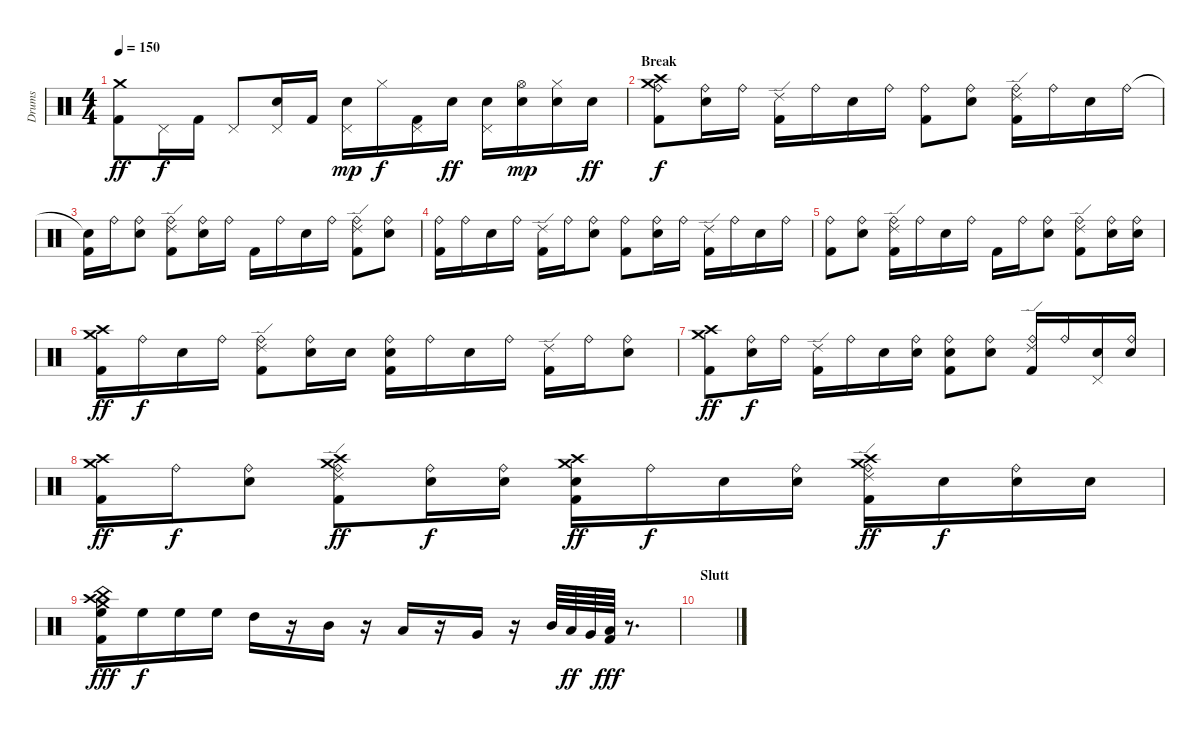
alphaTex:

\track ("Drums" "Drums") {instrument percussion}
\staff {score}
\articulation defaults
\ts (4 4)
\tempo 150
\clef neutral
\ks c
("Crash medium (hit)" "Kick (hit) 2").8{dy ff} "Pedal Hi-Hat (hit)".16{dy f} "Kick (hit) 2".16 "Pedal Hi-Hat (hit)".8 ("Pedal Hi-Hat (hit)" "Electric Snare (hit)").16 "Kick (hit) 2".16 ("Pedal Hi-Hat (hit)" "Snare (hit) 2").16{dy mp} "Hi-Hat (closed)".16{dy f} ("Pedal Hi-Hat (hit)" "Kick (hit) 2").16 "Electric Snare (hit)".16{dy ff} ("Pedal Hi-Hat (hit)" "Electric Snare (hit)").16 ("Hi-Hat (open)" "Snare (hit) 2").16{dy mp} ("Hi-Hat (closed)" "Snare (hit) 2").16 "Electric Snare (hit)".16{dy ff} |
\section ("" "Break")
("Ride (bell)" "Crash medium (hit)" "Crash high (hit)" "Kick (hit) 2").8{dy f} ("Ride (bell)" "Electric Snare (hit)").16 "Ride (bell)".16 ("Ride (edge) 2" "Kick (hit) 2").16 "Ride (bell)".16 "Electric Snare (hit)".16 "Ride (bell)".16 ("Ride (bell)" "Kick (hit) 2").8 ("Ride (bell)" "Electric Snare (hit)").8 ("Ride (bell)" "Ride (edge) 2" "Kick (hit) 2").16 "Ride (bell)".16 "Electric Snare (hit)".16 "Ride (bell)".16 |
("Snare (hit)"{t} "Kick (hit) 2").16 "Ride (bell)".16 ("Ride (bell)" "Electric Snare (hit)").8 ("Ride (bell)" "Ride (edge) 2" "Kick (hit) 2").8 ("Ride (bell)" "Electric Snare (hit)").16 "Ride (bell)".16 "Kick (hit) 2".16 "Ride (bell)".16 "Electric Snare (hit)".16 "Ride (bell)".16 ("Ride (bell)" "Ride (edge) 2" "Kick (hit) 2").8 ("Ride (bell)" "Electric Snare (hit)").8 |
("Ride (bell)" "Kick (hit) 2").16 "Ride (bell)".16 "Electric Snare (hit)".16 "Ride (bell)".16 ("Ride (edge) 2" "Kick (hit) 2").16 "Ride (bell)".16 ("Ride (bell)" "Electric Snare (hit)").8 ("Ride (bell)" "Kick (hit) 2").8 ("Ride (bell)" "Electric Snare (hit)").16 "Ride (bell)".16 ("Ride (edge) 2" "Kick (hit) 2").16 "Ride (bell)".16 "Electric Snare (hit)".16 "Ride (bell)".16 |
("Ride (bell)" "Kick (hit) 2").8 ("Ride (bell)" "Electric Snare (hit)").8 ("Ride (bell)" "Ride (edge) 2" "Kick (hit) 2").16 "Ride (bell)".16 "Electric Snare (hit)".16 "Ride (bell)".16 "Kick (hit) 2".16 "Ride (bell)".16 ("Ride (bell)" "Electric Snare (hit)").8 ("Ride (bell)" "Ride (edge) 2" "Kick (hit) 2").8 ("Ride (bell)" "Electric Snare (hit)").16 ("Ride (bell)" "Electric Snare (hit)").16 |
("Crash medium (hit)" "Crash high (hit)" "Kick (hit) 2").16{dy ff} "Ride (bell)".16{dy f} "Electric Snare (hit)".16 "Ride (bell)".16 ("Ride (bell)" "Ride (edge) 2" "Kick (hit) 2").8 ("Ride (bell)" "Electric Snare (hit)").16 "Electric Snare (hit)".16 ("Ride (bell)" "Electric Snare (hit)" "Kick (hit) 2").16 "Ride (bell)".16 "Electric Snare (hit)".16 "Ride (bell)".16 ("Ride (edge) 2" "Kick (hit) 2").16 "Ride (bell)".16 ("Ride (bell)" "Electric Snare (hit)").8 |
("Crash medium (hit)" "Crash high (hit)" "Kick (hit) 2").8{dy ff} ("Ride (bell)" "Electric Snare (hit)").16{dy f} "Ride (bell)".16 ("Ride (edge) 2" "Kick (hit) 2").16 "Ride (bell)".16 "Electric Snare (hit)".16 ("Ride (bell)" "Electric Snare (hit)").16 ("Ride (bell)" "Electric Snare (hit)" "Kick (hit) 2").8 ("Ride (bell)" "Electric Snare (hit)").8 ("Ride (bell)" "Ride (edge) 2" "Kick (hit) 2").16 "Ride (bell)".16 ("Pedal Hi-Hat (hit)" "Electric Snare (hit)").16 ("Ride (bell)" "Electric Snare (hit)").16 |
("Crash medium (hit)" "Crash high (hit)" "Kick (hit) 2").16{dy ff} "Ride (bell)".16{dy f} ("Ride (bell)" "Electric Snare (hit)").8 ("Ride (bell)" "Ride (edge) 2" "Crash medium (hit)" "Crash high (hit)" "Kick (hit) 2").8{dy ff} ("Ride (bell)" "Electric Snare (hit)").16{dy f} ("Ride (bell)" "Electric Snare (hit)").16 ("Crash medium (hit)" "Crash high (hit)" "Electric Snare (hit)" "Kick (hit) 2").16{dy ff} "Ride (bell)".16{dy f} "Electric Snare (hit)".16 ("Ride (bell)" "Electric Snare (hit)").16 ("Ride (bell)" "Ride (edge) 2" "Crash medium (hit)" "Crash high (hit)" "Kick (hit) 2").16{dy ff} "Electric Snare (hit)".16{dy f} ("Ride (bell)" "Electric Snare (hit)").16 "Electric Snare (hit)".16 |
("China (hit)" "Crash medium (hit)" "Crash high (hit)" "High Floor Tom (hit)" "Kick (hit) 2").16{dy fff} "High Floor Tom (hit)".16{dy f} "High Floor Tom (hit)".16 "High Floor Tom (hit)".16 "High Tom (hit)".16 r.16 "Mid Tom (hit)".16 r.16 "Low Tom (hit)".16 r.16 "Very Low Tom (hit)".16 r.16 "Mid Tom (hit)".64 "Low Tom (hit)".64{dy ff} "Very Low Tom (hit)".64 ("Low Floor Tom (hit)" "Kick (hit) 2").64{dy fff} r.8{d} |
\section ("" "Slutt")
